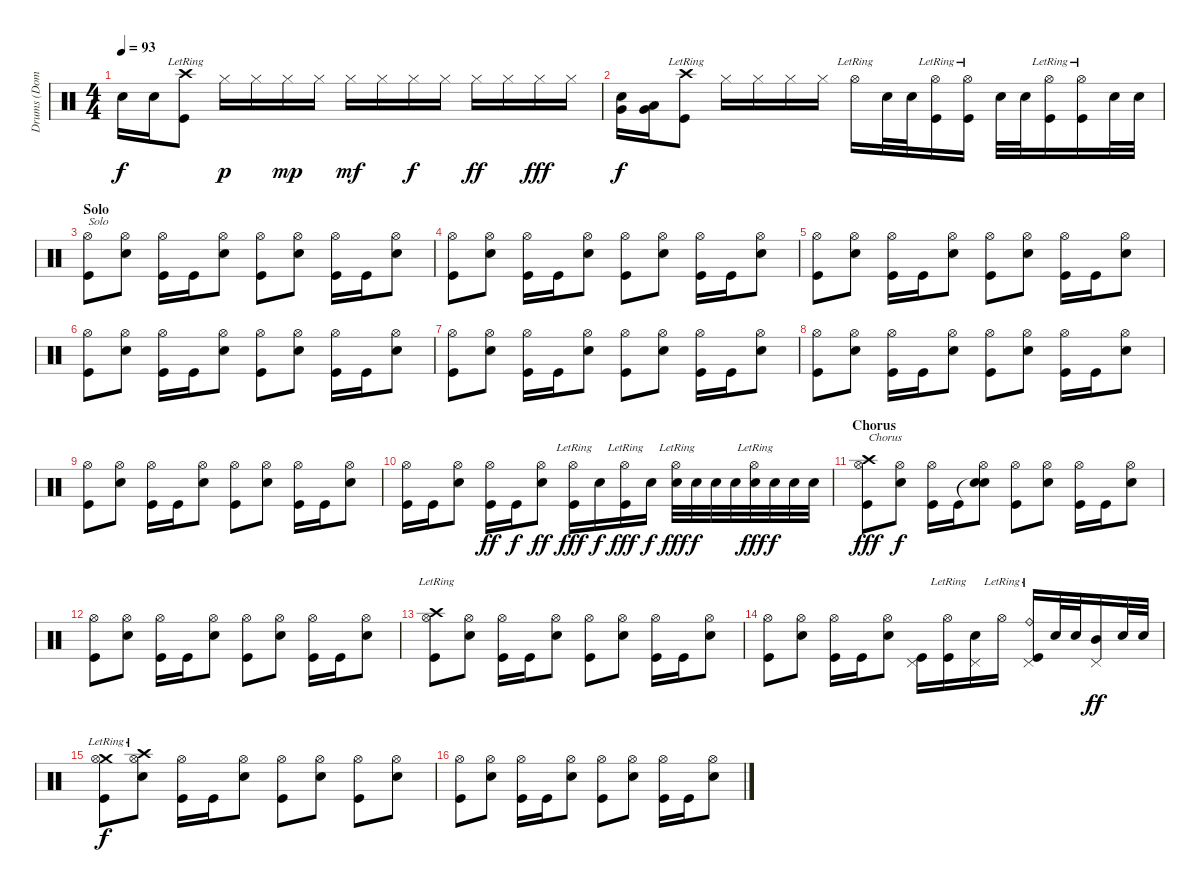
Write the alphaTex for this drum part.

\track ("Drums (Dominic Howard)" "Drums (Dom") {instrument percussion}
\staff {score}
\articulation defaults
\ts (4 4)
\tempo 93
\clef neutral
\ks c "Snare (hit) 2".16{dy f} "Snare (hit) 2".16
("Crash high (hit)"{lr} "Kick (hit)").8 "Hi-Hat (closed)".16{dy p} "Hi-Hat (closed)".16 "Hi-Hat (closed)".16{dy mp} "Hi-Hat (closed)".16 "Hi-Hat (closed)".16{dy mf} "Hi-Hat (closed)".16 "Hi-Hat (closed)".16{dy f} "Hi-Hat (closed)".16 "Hi-Hat (closed)".16{dy ff} "Hi-Hat (closed)".16 "Hi-Hat (closed)".16{dy fff} "Hi-Hat (closed)".16 |
("Very Low Tom (hit)" "Snare (hit) 2").16{dy f} ("Very Low Tom (hit)" "Low Tom (hit)").16 ("Crash high (hit)"{lr} "Kick (hit)").8 "Hi-Hat (closed)".16 "Hi-Hat (closed)".16 "Hi-Hat (closed)".16 "Hi-Hat (closed)".16 "Hi-Hat (open)"{lr}.16 "Snare (hit) 2".32 "Snare (hit) 2".32 ("Hi-Hat (open)"{lr} "Kick (hit)").16 ("Hi-Hat (open)"{lr} "Kick (hit)").16 "Snare (hit) 2".32 "Snare (hit) 2".32 ("Hi-Hat (open)"{lr} "Kick (hit)").16 ("Hi-Hat (open)"{lr} "Kick (hit)").16 "Snare (hit) 2".32 "Snare (hit) 2".32 |
\section ("" "Solo")
("Hi-Hat (open)" "Kick (hit)").8{txt "Solo"} ("Hi-Hat (open)" "Snare (hit) 2").8 ("Hi-Hat (open)" "Kick (hit)").16 "Kick (hit)".16 ("Hi-Hat (open)" "Snare (hit) 2").8 ("Hi-Hat (open)" "Kick (hit)").8 ("Hi-Hat (open)" "Snare (hit) 2").8 ("Hi-Hat (open)" "Kick (hit)").16 "Kick (hit)".16 ("Hi-Hat (open)" "Snare (hit) 2").8 |
("Hi-Hat (open)" "Kick (hit)").8 ("Hi-Hat (open)" "Snare (hit) 2").8 ("Hi-Hat (open)" "Kick (hit)").16 "Kick (hit)".16 ("Hi-Hat (open)" "Snare (hit) 2").8 ("Hi-Hat (open)" "Kick (hit)").8 ("Hi-Hat (open)" "Snare (hit) 2").8 ("Hi-Hat (open)" "Kick (hit)").16 "Kick (hit)".16 ("Hi-Hat (open)" "Snare (hit) 2").8 |
("Hi-Hat (open)" "Kick (hit)").8 ("Hi-Hat (open)" "Snare (hit) 2").8 ("Hi-Hat (open)" "Kick (hit)").16 "Kick (hit)".16 ("Hi-Hat (open)" "Snare (hit) 2").8 ("Hi-Hat (open)" "Kick (hit)").8 ("Hi-Hat (open)" "Snare (hit) 2").8 ("Hi-Hat (open)" "Kick (hit)").16 "Kick (hit)".16 ("Hi-Hat (open)" "Snare (hit) 2").8 |
("Hi-Hat (open)" "Kick (hit)").8 ("Hi-Hat (open)" "Snare (hit) 2").8 ("Hi-Hat (open)" "Kick (hit)").16 "Kick (hit)".16 ("Hi-Hat (open)" "Snare (hit) 2").8 ("Hi-Hat (open)" "Kick (hit)").8 ("Hi-Hat (open)" "Snare (hit) 2").8 ("Hi-Hat (open)" "Kick (hit)").16 "Kick (hit)".16 ("Hi-Hat (open)" "Snare (hit) 2").8 |
("Hi-Hat (open)" "Kick (hit)").8 ("Hi-Hat (open)" "Snare (hit) 2").8 ("Hi-Hat (open)" "Kick (hit)").16 "Kick (hit)".16 ("Hi-Hat (open)" "Snare (hit) 2").8 ("Hi-Hat (open)" "Kick (hit)").8 ("Hi-Hat (open)" "Snare (hit) 2").8 ("Hi-Hat (open)" "Kick (hit)").16 "Kick (hit)".16 ("Hi-Hat (open)" "Snare (hit) 2").8 |
("Hi-Hat (open)" "Kick (hit)").8 ("Hi-Hat (open)" "Snare (hit) 2").8 ("Hi-Hat (open)" "Kick (hit)").16 "Kick (hit)".16 ("Hi-Hat (open)" "Snare (hit) 2").8 ("Hi-Hat (open)" "Kick (hit)").8 ("Hi-Hat (open)" "Snare (hit) 2").8 ("Hi-Hat (open)" "Kick (hit)").16 "Kick (hit)".16 ("Hi-Hat (open)" "Snare (hit) 2").8 |
("Hi-Hat (open)" "Kick (hit)").8 ("Hi-Hat (open)" "Snare (hit) 2").8 ("Hi-Hat (open)" "Kick (hit)").16 "Kick (hit)".16 ("Hi-Hat (open)" "Snare (hit) 2").8 ("Hi-Hat (open)" "Kick (hit)").8 ("Hi-Hat (open)" "Snare (hit) 2").8 ("Hi-Hat (open)" "Kick (hit)").16 "Kick (hit)".16 ("Hi-Hat (open)" "Snare (hit) 2").8 |
("Hi-Hat (open)" "Kick (hit)").16 "Kick (hit)".16 ("Hi-Hat (open)" "Snare (hit) 2").8 ("Hi-Hat (open)" "Kick (hit)").16{dy ff} "Kick (hit)".16{dy f} ("Hi-Hat (open)" "Snare (hit) 2").8{dy ff} ("Hi-Hat (open)"{lr} "Kick (hit)").16{dy fff} "Snare (hit) 2".16{dy f} ("Hi-Hat (open)"{lr} "Kick (hit)").16{dy fff} "Snare (hit) 2".16{dy f} ("Hi-Hat (open)"{lr} "Snare (hit) 2").32{dy fff} "Snare (hit) 2".32{dy f} "Snare (hit) 2".32 "Snare (hit) 2".32 ("Hi-Hat (open)"{lr} "Snare (hit) 2").32{dy fff} "Snare (hit) 2".32{dy f} "Snare (hit) 2".32 "Snare (hit) 2".32 |
\section ("" "Chorus")
("Crash high (hit)" "Hi-Hat (open)" "Kick (hit)").8{txt "Chorus" dy fff} ("Hi-Hat (open)" "Snare (hit) 2").8{dy f} ("Hi-Hat (open)" "Kick (hit)").16 "Kick (hit)".16 ("Snare (hit)"{t} "Hi-Hat (open)" "Snare (hit) 2").8 ("Hi-Hat (open)" "Kick (hit)").8 ("Hi-Hat (open)" "Snare (hit) 2").8 ("Hi-Hat (open)" "Kick (hit)").16 "Kick (hit)".16 ("Hi-Hat (open)" "Snare (hit) 2").8 |
("Hi-Hat (open)" "Kick (hit)").8 ("Hi-Hat (open)" "Snare (hit) 2").8 ("Hi-Hat (open)" "Kick (hit)").16 "Kick (hit)".16 ("Hi-Hat (open)" "Snare (hit) 2").8 ("Hi-Hat (open)" "Kick (hit)").8 ("Hi-Hat (open)" "Snare (hit) 2").8 ("Hi-Hat (open)" "Kick (hit)").16 "Kick (hit)".16 ("Hi-Hat (open)" "Snare (hit) 2").8 |
("Crash high (hit)"{lr} "Hi-Hat (open)" "Kick (hit)").8 ("Hi-Hat (open)" "Snare (hit) 2").8 ("Hi-Hat (open)" "Kick (hit)").16 "Kick (hit)".16 ("Hi-Hat (open)" "Snare (hit) 2").8 ("Hi-Hat (open)" "Kick (hit)").8 ("Hi-Hat (open)" "Snare (hit) 2").8 ("Hi-Hat (open)" "Kick (hit)").16 "Kick (hit)".16 ("Hi-Hat (open)" "Snare (hit) 2").8 |
("Hi-Hat (open)" "Kick (hit)").8 ("Hi-Hat (open)" "Snare (hit) 2").8 ("Hi-Hat (open)" "Kick (hit)").16 "Kick (hit)".16 ("Hi-Hat (open)" "Snare (hit) 2").8 ("Pedal Hi-Hat (hit)" "Kick (hit)").16 ("Hi-Hat (open)"{lr} "Kick (hit)").16 ("Pedal Hi-Hat (hit)" "Snare (hit) 2").16 "Hi-Hat (open)"{lr}.16 ("Pedal Hi-Hat (hit)" "Ride (bell)"{lr} "Kick (hit)").16 "Snare (hit) 2".32 "Snare (hit) 2".32 ("Pedal Hi-Hat (hit)" "Mid Tom (hit)").16{dy ff} "Snare (hit) 2".32 "Snare (hit) 2".32 |
("Crash medium (hit)"{lr} "Hi-Hat (open)" "Kick (hit)").8{dy f} ("Crash high (hit)"{lr} "Hi-Hat (open)" "Snare (hit) 2").8 ("Hi-Hat (open)" "Kick (hit)").16 "Kick (hit)".16 ("Hi-Hat (open)" "Snare (hit) 2").8 ("Hi-Hat (open)" "Kick (hit)").8 ("Hi-Hat (open)" "Snare (hit) 2").8 ("Hi-Hat (open)" "Kick (hit)").8 ("Hi-Hat (open)" "Snare (hit) 2").8 |
("Hi-Hat (open)" "Kick (hit)").8 ("Hi-Hat (open)" "Snare (hit) 2").8 ("Hi-Hat (open)" "Kick (hit)").16 "Kick (hit)".16 ("Hi-Hat (open)" "Snare (hit) 2").8 ("Hi-Hat (open)" "Kick (hit)").8 ("Hi-Hat (open)" "Snare (hit) 2").8 ("Hi-Hat (open)" "Kick (hit)").16 "Kick (hit)".16 ("Hi-Hat (open)" "Snare (hit) 2").8
